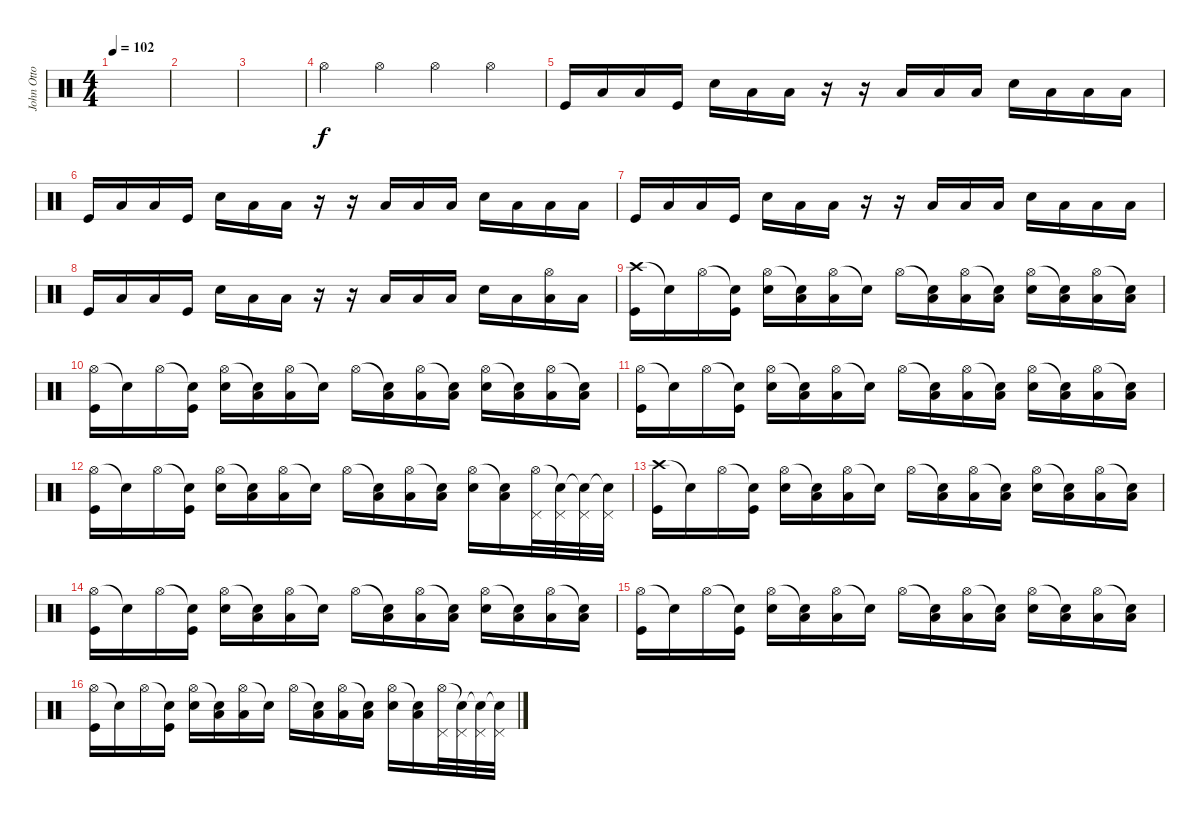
\track ("John Otto (1st Drums)" "John Otto ") {instrument percussion}
\staff {score}
\articulation defaults
\ts (4 4)
\tempo 102
\clef neutral
\ks c
|
|
|
"Hi-Hat (open)".4 "Hi-Hat (open)".4 "Hi-Hat (open)".4 "Hi-Hat (open)".4 |
"Kick (hit)".16 "Low Tom (hit)".16 "Low Tom (hit)".16 "Kick (hit)".16 "Snare (hit) 2".16 "Low Tom (hit)".16 "Low Tom (hit)".16 r.16 r.16 "Low Tom (hit)".16 "Low Tom (hit)".16 "Low Tom (hit)".16 "Snare (hit) 2".16 "Low Tom (hit)".16 "Low Tom (hit)".16 "Low Tom (hit)".16 |
"Kick (hit)".16 "Low Tom (hit)".16 "Low Tom (hit)".16 "Kick (hit)".16 "Snare (hit) 2".16 "Low Tom (hit)".16 "Low Tom (hit)".16 r.16 r.16 "Low Tom (hit)".16 "Low Tom (hit)".16 "Low Tom (hit)".16 "Snare (hit) 2".16 "Low Tom (hit)".16 "Low Tom (hit)".16 "Low Tom (hit)".16 |
"Kick (hit)".16 "Low Tom (hit)".16 "Low Tom (hit)".16 "Kick (hit)".16 "Snare (hit) 2".16 "Low Tom (hit)".16 "Low Tom (hit)".16 r.16 r.16 "Low Tom (hit)".16 "Low Tom (hit)".16 "Low Tom (hit)".16 "Snare (hit) 2".16 "Low Tom (hit)".16 "Low Tom (hit)".16 "Low Tom (hit)".16 |
"Kick (hit)".16 "Low Tom (hit)".16 "Low Tom (hit)".16 "Kick (hit)".16 "Snare (hit) 2".16 "Low Tom (hit)".16 "Low Tom (hit)".16 r.16 r.16 "Low Tom (hit)".16 "Low Tom (hit)".16 "Low Tom (hit)".16 "Snare (hit) 2".16 "Low Tom (hit)".16 ("Hi-Hat (open)" "Low Tom (hit)").16 "Low Tom (hit)".16 |
("Crash high (hit)" "Kick (hit)").16 "Snare (hit)"{t}.16 "Hi-Hat (open)".16 ("Snare (hit)"{t} "Kick (hit)").16 ("Hi-Hat (open)" "Snare (hit) 2").16 ("Snare (hit)"{t} "Low Tom (hit)").16 ("Hi-Hat (open)" "Low Tom (hit)").16 "Snare (hit)"{t}.16 "Hi-Hat (open)".16 ("Snare (hit)"{t} "Low Tom (hit)").16 ("Hi-Hat (open)" "Low Tom (hit)").16 ("Snare (hit)"{t} "Low Tom (hit)").16 ("Hi-Hat (open)" "Snare (hit) 2").16 ("Snare (hit)"{t} "Low Tom (hit)").16 ("Hi-Hat (open)" "Low Tom (hit)").16 ("Snare (hit)"{t} "Low Tom (hit)").16 |
("Hi-Hat (open)" "Kick (hit)").16 "Snare (hit)"{t}.16 "Hi-Hat (open)".16 ("Snare (hit)"{t} "Kick (hit)").16 ("Hi-Hat (open)" "Snare (hit) 2").16 ("Snare (hit)"{t} "Low Tom (hit)").16 ("Hi-Hat (open)" "Low Tom (hit)").16 "Snare (hit)"{t}.16 "Hi-Hat (open)".16 ("Snare (hit)"{t} "Low Tom (hit)").16 ("Hi-Hat (open)" "Low Tom (hit)").16 ("Snare (hit)"{t} "Low Tom (hit)").16 ("Hi-Hat (open)" "Snare (hit) 2").16 ("Snare (hit)"{t} "Low Tom (hit)").16 ("Hi-Hat (open)" "Low Tom (hit)").16 ("Snare (hit)"{t} "Low Tom (hit)").16 |
("Hi-Hat (open)" "Kick (hit)").16 "Snare (hit)"{t}.16 "Hi-Hat (open)".16 ("Snare (hit)"{t} "Kick (hit)").16 ("Hi-Hat (open)" "Snare (hit) 2").16 ("Snare (hit)"{t} "Low Tom (hit)").16 ("Hi-Hat (open)" "Low Tom (hit)").16 "Snare (hit)"{t}.16 "Hi-Hat (open)".16 ("Snare (hit)"{t} "Low Tom (hit)").16 ("Hi-Hat (open)" "Low Tom (hit)").16 ("Snare (hit)"{t} "Low Tom (hit)").16 ("Hi-Hat (open)" "Snare (hit) 2").16 ("Snare (hit)"{t} "Low Tom (hit)").16 ("Hi-Hat (open)" "Low Tom (hit)").16 ("Snare (hit)"{t} "Low Tom (hit)").16 |
("Hi-Hat (open)" "Kick (hit)").16 "Snare (hit)"{t}.16 "Hi-Hat (open)".16 ("Snare (hit)"{t} "Kick (hit)").16 ("Hi-Hat (open)" "Snare (hit) 2").16 ("Snare (hit)"{t} "Low Tom (hit)").16 ("Hi-Hat (open)" "Low Tom (hit)").16 "Snare (hit)"{t}.16 "Hi-Hat (open)".16 ("Snare (hit)"{t} "Low Tom (hit)").16 ("Hi-Hat (open)" "Low Tom (hit)").16 ("Snare (hit)"{t} "Low Tom (hit)").16 ("Hi-Hat (open)" "Snare (hit) 2").16 ("Snare (hit)"{t} "Low Tom (hit)").16 ("Hi-Hat (open)" "Pedal Hi-Hat (hit)").32 ("Snare (hit)"{t} "Pedal Hi-Hat (hit)").32 ("Snare (hit)"{t} "Pedal Hi-Hat (hit)").32 ("Snare (hit)"{t} "Pedal Hi-Hat (hit)").32 |
("Crash high (hit)" "Kick (hit)").16 "Snare (hit)"{t}.16 "Hi-Hat (open)".16 ("Snare (hit)"{t} "Kick (hit)").16 ("Hi-Hat (open)" "Snare (hit) 2").16 ("Snare (hit)"{t} "Low Tom (hit)").16 ("Hi-Hat (open)" "Low Tom (hit)").16 "Snare (hit)"{t}.16 "Hi-Hat (open)".16 ("Snare (hit)"{t} "Low Tom (hit)").16 ("Hi-Hat (open)" "Low Tom (hit)").16 ("Snare (hit)"{t} "Low Tom (hit)").16 ("Hi-Hat (open)" "Snare (hit) 2").16 ("Snare (hit)"{t} "Low Tom (hit)").16 ("Hi-Hat (open)" "Low Tom (hit)").16 ("Snare (hit)"{t} "Low Tom (hit)").16 |
("Hi-Hat (open)" "Kick (hit)").16 "Snare (hit)"{t}.16 "Hi-Hat (open)".16 ("Snare (hit)"{t} "Kick (hit)").16 ("Hi-Hat (open)" "Snare (hit) 2").16 ("Snare (hit)"{t} "Low Tom (hit)").16 ("Hi-Hat (open)" "Low Tom (hit)").16 "Snare (hit)"{t}.16 "Hi-Hat (open)".16 ("Snare (hit)"{t} "Low Tom (hit)").16 ("Hi-Hat (open)" "Low Tom (hit)").16 ("Snare (hit)"{t} "Low Tom (hit)").16 ("Hi-Hat (open)" "Snare (hit) 2").16 ("Snare (hit)"{t} "Low Tom (hit)").16 ("Hi-Hat (open)" "Low Tom (hit)").16 ("Snare (hit)"{t} "Low Tom (hit)").16 |
("Hi-Hat (open)" "Kick (hit)").16 "Snare (hit)"{t}.16 "Hi-Hat (open)".16 ("Snare (hit)"{t} "Kick (hit)").16 ("Hi-Hat (open)" "Snare (hit) 2").16 ("Snare (hit)"{t} "Low Tom (hit)").16 ("Hi-Hat (open)" "Low Tom (hit)").16 "Snare (hit)"{t}.16 "Hi-Hat (open)".16 ("Snare (hit)"{t} "Low Tom (hit)").16 ("Hi-Hat (open)" "Low Tom (hit)").16 ("Snare (hit)"{t} "Low Tom (hit)").16 ("Hi-Hat (open)" "Snare (hit) 2").16 ("Snare (hit)"{t} "Low Tom (hit)").16 ("Hi-Hat (open)" "Low Tom (hit)").16 ("Snare (hit)"{t} "Low Tom (hit)").16 |
("Hi-Hat (open)" "Kick (hit)").16 "Snare (hit)"{t}.16 "Hi-Hat (open)".16 ("Snare (hit)"{t} "Kick (hit)").16 ("Hi-Hat (open)" "Snare (hit) 2").16 ("Snare (hit)"{t} "Low Tom (hit)").16 ("Hi-Hat (open)" "Low Tom (hit)").16 "Snare (hit)"{t}.16 "Hi-Hat (open)".16 ("Snare (hit)"{t} "Low Tom (hit)").16 ("Hi-Hat (open)" "Low Tom (hit)").16 ("Snare (hit)"{t} "Low Tom (hit)").16 ("Hi-Hat (open)" "Snare (hit) 2").16 ("Snare (hit)"{t} "Low Tom (hit)").16 ("Hi-Hat (open)" "Pedal Hi-Hat (hit)").32 ("Snare (hit)"{t} "Pedal Hi-Hat (hit)").32 ("Snare (hit)"{t} "Pedal Hi-Hat (hit)").32 ("Snare (hit)"{t} "Pedal Hi-Hat (hit)").32
